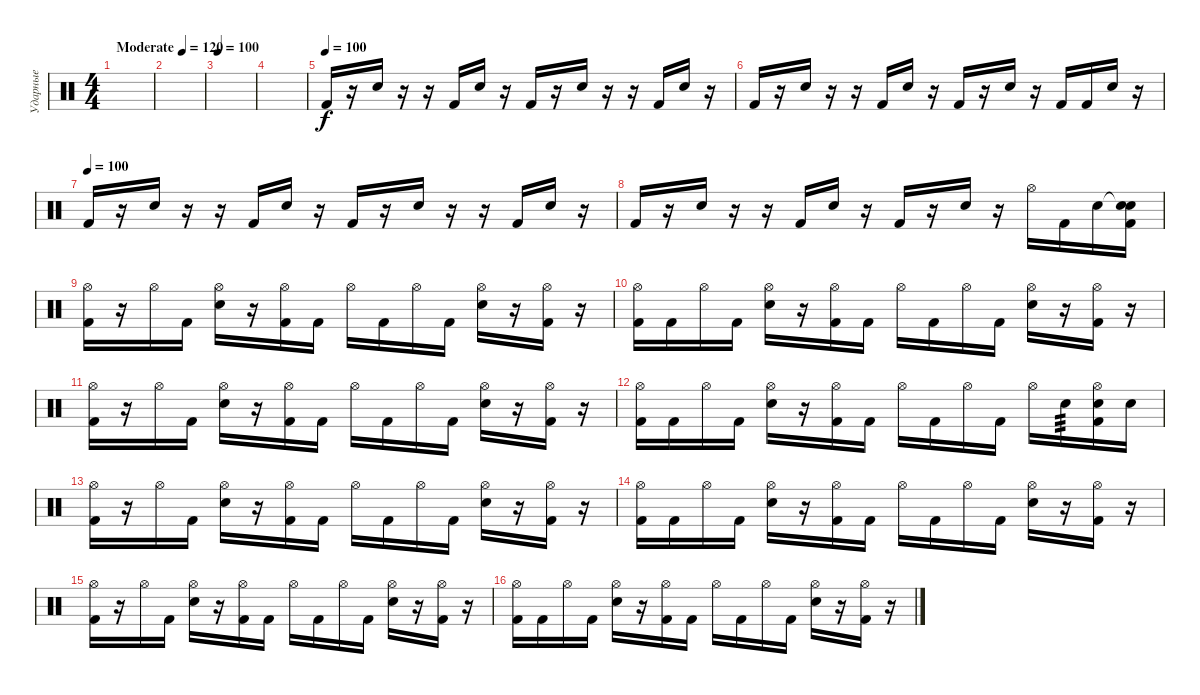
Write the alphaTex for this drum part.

\track ("Ударные" "Ударные") {instrument percussion}
\staff {score}
\articulation defaults
\ts (4 4)
\tempo (120 "Moderate")
\tempo 100
\tempo (120 "Moderate")
\clef neutral
\ks c
|
|
\tempo 100
|
|
\tempo (100)
"Kick (hit) 2".16 r.16 "Electric Snare (hit)".16 r.16 r.16 "Kick (hit) 2".16 "Electric Snare (hit)".16 r.16 "Kick (hit) 2".16 r.16 "Electric Snare (hit)".16 r.16 r.16 "Kick (hit) 2".16 "Electric Snare (hit)".16 r.16 |
"Kick (hit) 2".16 r.16 "Electric Snare (hit)".16 r.16 r.16 "Kick (hit) 2".16 "Electric Snare (hit)".16 r.16 "Kick (hit) 2".16 r.16 "Electric Snare (hit)".16 r.16 "Kick (hit) 2".16 "Kick (hit) 2".16 "Electric Snare (hit)".16 r.16 |
\tempo (100)
"Kick (hit) 2".16 r.16 "Electric Snare (hit)".16 r.16 r.16 "Kick (hit) 2".16 "Electric Snare (hit)".16 r.16 "Kick (hit) 2".16 r.16 "Electric Snare (hit)".16 r.16 r.16 "Kick (hit) 2".16 "Electric Snare (hit)".16 r.16 |
"Kick (hit) 2".16 r.16 "Electric Snare (hit)".16 r.16 r.16 "Kick (hit) 2".16 "Electric Snare (hit)".16 r.16 "Kick (hit) 2".16 r.16 "Electric Snare (hit)".16 r.16 "Hi-Hat (open)".16 "Kick (hit) 2".16 "Electric Snare (hit)".16 ("Snare (hit)"{t} "Electric Snare (hit)" "Kick (hit) 2").16 |
("Hi-Hat (open)" "Kick (hit) 2").16 r.16 "Hi-Hat (open)".16 "Kick (hit) 2".16 ("Hi-Hat (open)" "Electric Snare (hit)").16 r.16 ("Hi-Hat (open)" "Kick (hit) 2").16 "Kick (hit) 2".16 "Hi-Hat (open)".16 "Kick (hit) 2".16 "Hi-Hat (open)".16 "Kick (hit) 2".16 ("Hi-Hat (open)" "Electric Snare (hit)").16 r.16 ("Hi-Hat (open)" "Kick (hit) 2").16 r.16 |
("Hi-Hat (open)" "Kick (hit) 2").16 "Kick (hit) 2".16 "Hi-Hat (open)".16 "Kick (hit) 2".16 ("Hi-Hat (open)" "Electric Snare (hit)").16 r.16 ("Hi-Hat (open)" "Kick (hit) 2").16 "Kick (hit) 2".16 "Hi-Hat (open)".16 "Kick (hit) 2".16 "Hi-Hat (open)".16 "Kick (hit) 2".16 ("Hi-Hat (open)" "Electric Snare (hit)").16 r.16 ("Hi-Hat (open)" "Kick (hit) 2").16 r.16 |
("Hi-Hat (open)" "Kick (hit) 2").16 r.16 "Hi-Hat (open)".16 "Kick (hit) 2".16 ("Hi-Hat (open)" "Electric Snare (hit)").16 r.16 ("Hi-Hat (open)" "Kick (hit) 2").16 "Kick (hit) 2".16 "Hi-Hat (open)".16 "Kick (hit) 2".16 "Hi-Hat (open)".16 "Kick (hit) 2".16 ("Hi-Hat (open)" "Electric Snare (hit)").16 r.16 ("Hi-Hat (open)" "Kick (hit) 2").16 r.16 |
("Hi-Hat (open)" "Kick (hit) 2").16 "Kick (hit) 2".16 "Hi-Hat (open)".16 "Kick (hit) 2".16 ("Hi-Hat (open)" "Electric Snare (hit)").16 r.16 ("Hi-Hat (open)" "Kick (hit) 2").16 "Kick (hit) 2".16 "Hi-Hat (open)".16 "Kick (hit) 2".16 "Hi-Hat (open)".16 "Kick (hit) 2".16 "Hi-Hat (open)".16 "Electric Snare (hit)".16{tp 3} ("Hi-Hat (open)" "Electric Snare (hit)" "Kick (hit) 2").16 "Electric Snare (hit)".16 |
("Hi-Hat (open)" "Kick (hit) 2").16 r.16 "Hi-Hat (open)".16 "Kick (hit) 2".16 ("Hi-Hat (open)" "Electric Snare (hit)").16 r.16 ("Hi-Hat (open)" "Kick (hit) 2").16 "Kick (hit) 2".16 "Hi-Hat (open)".16 "Kick (hit) 2".16 "Hi-Hat (open)".16 "Kick (hit) 2".16 ("Hi-Hat (open)" "Electric Snare (hit)").16 r.16 ("Hi-Hat (open)" "Kick (hit) 2").16 r.16 |
("Hi-Hat (open)" "Kick (hit) 2").16 "Kick (hit) 2".16 "Hi-Hat (open)".16 "Kick (hit) 2".16 ("Hi-Hat (open)" "Electric Snare (hit)").16 r.16 ("Hi-Hat (open)" "Kick (hit) 2").16 "Kick (hit) 2".16 "Hi-Hat (open)".16 "Kick (hit) 2".16 "Hi-Hat (open)".16 "Kick (hit) 2".16 ("Hi-Hat (open)" "Electric Snare (hit)").16 r.16 ("Hi-Hat (open)" "Kick (hit) 2").16 r.16 |
("Hi-Hat (open)" "Kick (hit) 2").16 r.16 "Hi-Hat (open)".16 "Kick (hit) 2".16 ("Hi-Hat (open)" "Electric Snare (hit)").16 r.16 ("Hi-Hat (open)" "Kick (hit) 2").16 "Kick (hit) 2".16 "Hi-Hat (open)".16 "Kick (hit) 2".16 "Hi-Hat (open)".16 "Kick (hit) 2".16 ("Hi-Hat (open)" "Electric Snare (hit)").16 r.16 ("Hi-Hat (open)" "Kick (hit) 2").16 r.16 |
("Hi-Hat (open)" "Kick (hit) 2").16 "Kick (hit) 2".16 "Hi-Hat (open)".16 "Kick (hit) 2".16 ("Hi-Hat (open)" "Electric Snare (hit)").16 r.16 ("Hi-Hat (open)" "Kick (hit) 2").16 "Kick (hit) 2".16 "Hi-Hat (open)".16 "Kick (hit) 2".16 "Hi-Hat (open)".16 "Kick (hit) 2".16 ("Hi-Hat (open)" "Electric Snare (hit)").16 r.16 ("Hi-Hat (open)" "Kick (hit) 2").16 r.16
